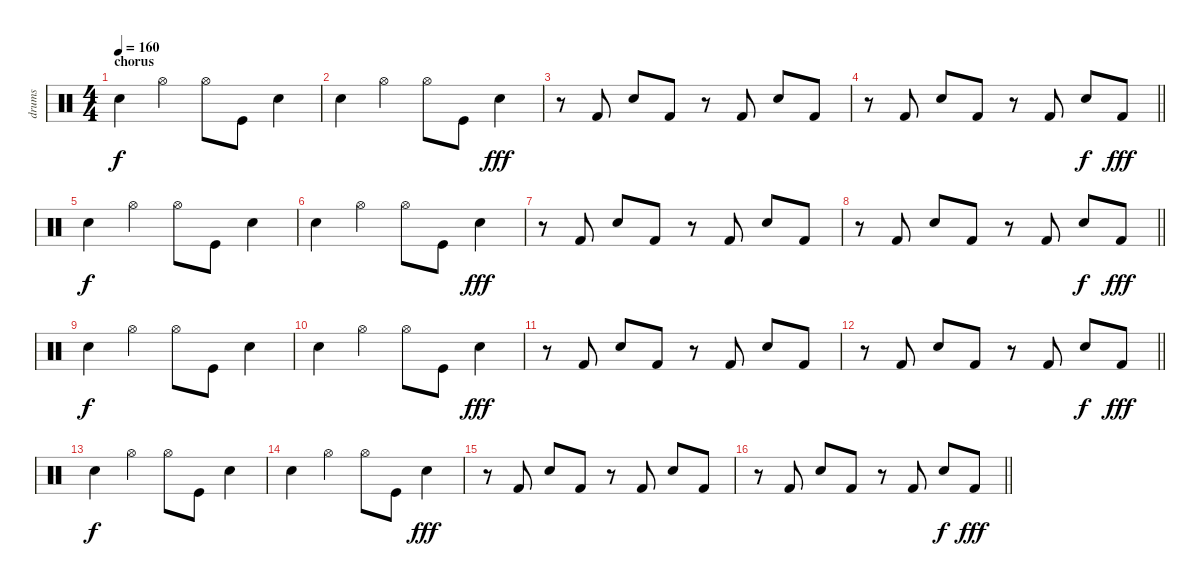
\track ("drums" "drums") {instrument percussion}
\staff {score}
\articulation defaults
\ts (4 4)
\section ("" "chorus")
\tempo 160
\clef neutral
\ks c "Snare (hit) 2".4{dy f} "Hi-Hat (open)".4 "Hi-Hat (open)".8 "Kick (hit)".8 "Snare (hit) 2".4
|
"Snare (hit) 2".4 "Hi-Hat (open)".4 "Hi-Hat (open)".8 "Kick (hit)".8 "Snare (hit) 2".4{dy fff} |
r.8 "Kick (hit) 2".8 "Snare (hit) 2".8 "Kick (hit) 2".8 r.8 "Kick (hit) 2".8 "Snare (hit) 2".8 "Kick (hit) 2".8 |
\barLineRight lightlight
r.8 "Kick (hit) 2".8 "Snare (hit) 2".8 "Kick (hit) 2".8 r.8 "Kick (hit) 2".8 "Snare (hit) 2".8{dy f} "Kick (hit) 2".8{dy fff} |
"Snare (hit) 2".4{dy f} "Hi-Hat (open)".4 "Hi-Hat (open)".8 "Kick (hit)".8 "Snare (hit) 2".4 |
"Snare (hit) 2".4 "Hi-Hat (open)".4 "Hi-Hat (open)".8 "Kick (hit)".8 "Snare (hit) 2".4{dy fff} |
r.8 "Kick (hit) 2".8 "Snare (hit) 2".8 "Kick (hit) 2".8 r.8 "Kick (hit) 2".8 "Snare (hit) 2".8 "Kick (hit) 2".8 |
\barLineRight lightlight
r.8 "Kick (hit) 2".8 "Snare (hit) 2".8 "Kick (hit) 2".8 r.8 "Kick (hit) 2".8 "Snare (hit) 2".8{dy f} "Kick (hit) 2".8{dy fff} |
"Snare (hit) 2".4{dy f} "Hi-Hat (open)".4 "Hi-Hat (open)".8 "Kick (hit)".8 "Snare (hit) 2".4 |
"Snare (hit) 2".4 "Hi-Hat (open)".4 "Hi-Hat (open)".8 "Kick (hit)".8 "Snare (hit) 2".4{dy fff} |
r.8 "Kick (hit) 2".8 "Snare (hit) 2".8 "Kick (hit) 2".8 r.8 "Kick (hit) 2".8 "Snare (hit) 2".8 "Kick (hit) 2".8 |
\barLineRight lightlight
r.8 "Kick (hit) 2".8 "Snare (hit) 2".8 "Kick (hit) 2".8 r.8 "Kick (hit) 2".8 "Snare (hit) 2".8{dy f} "Kick (hit) 2".8{dy fff} |
"Snare (hit) 2".4{dy f} "Hi-Hat (open)".4 "Hi-Hat (open)".8 "Kick (hit)".8 "Snare (hit) 2".4 |
"Snare (hit) 2".4 "Hi-Hat (open)".4 "Hi-Hat (open)".8 "Kick (hit)".8 "Snare (hit) 2".4{dy fff} |
r.8 "Kick (hit) 2".8 "Snare (hit) 2".8 "Kick (hit) 2".8 r.8 "Kick (hit) 2".8 "Snare (hit) 2".8 "Kick (hit) 2".8 |
\barLineRight lightlight
r.8 "Kick (hit) 2".8 "Snare (hit) 2".8 "Kick (hit) 2".8 r.8 "Kick (hit) 2".8 "Snare (hit) 2".8{dy f} "Kick (hit) 2".8{dy fff}
